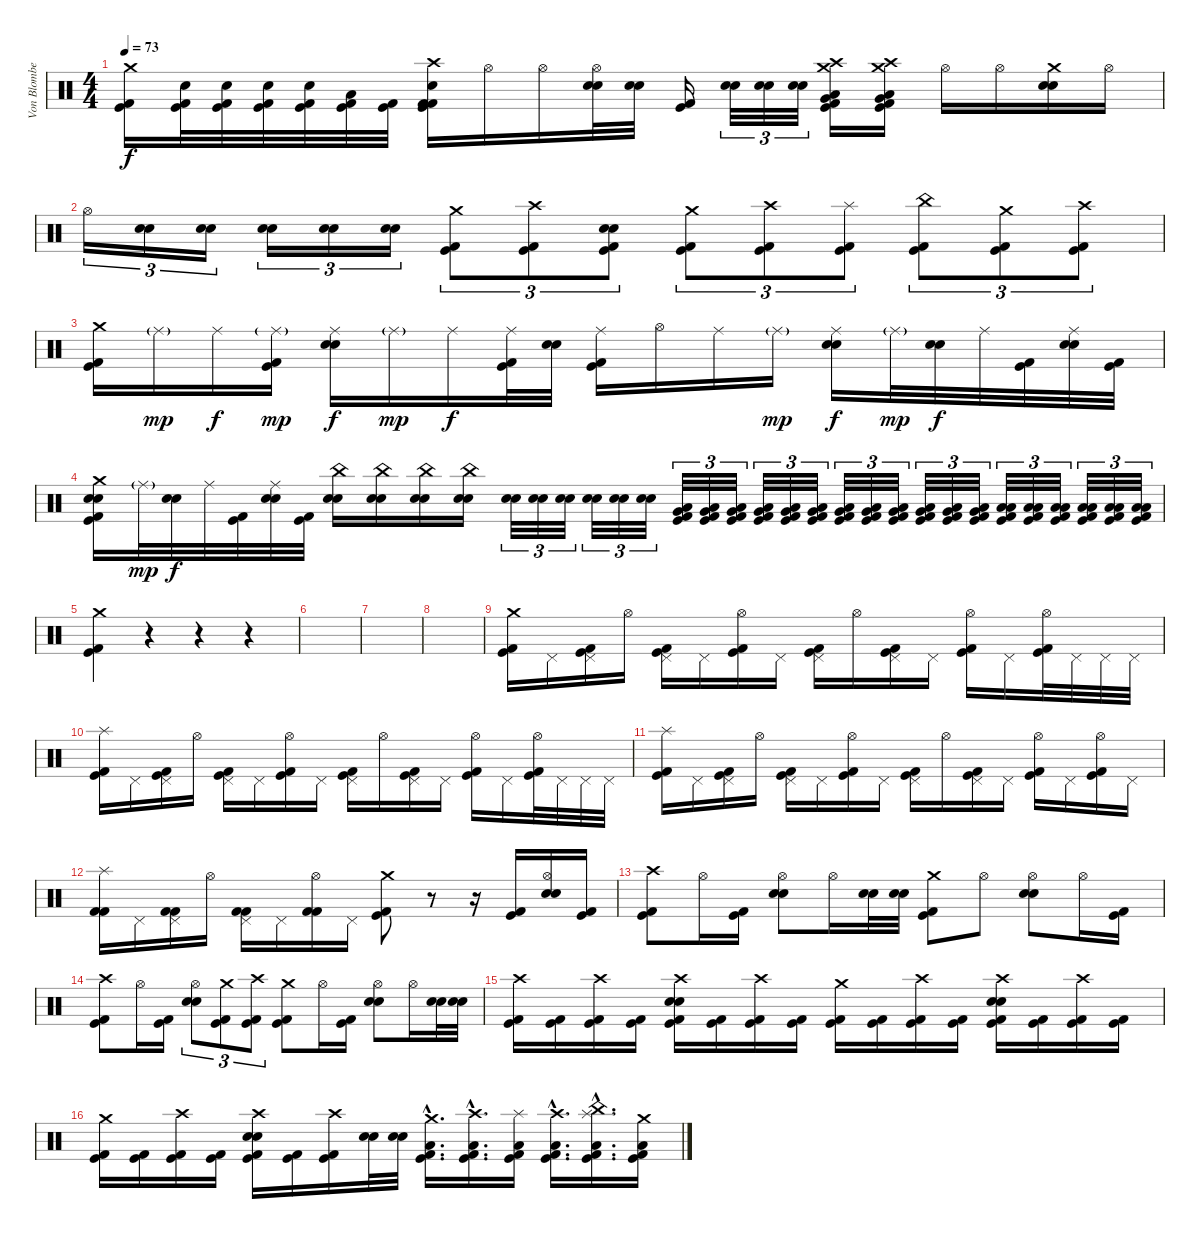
\track ("Von Blomberg" "Von Blombe") {instrument percussion}
\staff {score}
\articulation defaults
\ts (4 4)
\tempo 73
\clef neutral
\ks c
("Crash medium (hit)" "Kick (hit)" "Kick (hit) 2").16{dy f} ("Snare (hit) 2" "Kick (hit) 2" "Kick (hit)").32 ("Snare (hit) 2" "Kick (hit) 2" "Kick (hit)").32 ("Snare (hit) 2" "Kick (hit) 2" "Kick (hit)").32 ("Snare (hit) 2" "Kick (hit) 2" "Kick (hit)").32 ("Low Tom (hit)" "Kick (hit) 2" "Kick (hit)").32 ("Kick (hit)" "Kick (hit) 2").32 ("Crash high (hit)" "Kick (hit) 2" "Snare (hit) 2" "Kick (hit)" "Kick (hit) 2").16 "Hi-Hat (open)".16 "Hi-Hat (open)".16 ("Hi-Hat (open)" "Snare (hit) 2" "Electric Snare (hit)").32 ("Snare (hit) 2" "Electric Snare (hit)").32 ("Kick (hit)" "Kick (hit) 2").16 ("Electric Snare (hit)" "Snare (hit) 2").32{tu (3 2)} ("Electric Snare (hit)" "Snare (hit) 2").32{tu (3 2)} ("Electric Snare (hit)" "Snare (hit) 2").32{tu (3 2)} ("Crash medium (hit)" "Crash high (hit)" "Low Tom (hit)" "Very Low Tom (hit)" "Kick (hit)" "Kick (hit) 2").16 ("Crash medium (hit)" "Crash high (hit)" "Very Low Tom (hit)" "Low Floor Tom (hit)" "Kick (hit)" "Kick (hit) 2").16 "Hi-Hat (open)".16 "Hi-Hat (open)".16 ("Crash medium (hit)" "Electric Snare (hit)" "Snare (hit) 2").16 "Hi-Hat (open)".16 |
"Hi-Hat (open)".16{tu (3 2)} ("Snare (hit) 2" "Electric Snare (hit)").16{tu (3 2)} ("Snare (hit) 2" "Electric Snare (hit)").16{tu (3 2)} ("Snare (hit) 2" "Electric Snare (hit)").16{tu (3 2)} ("Snare (hit) 2" "Electric Snare (hit)").16{tu (3 2)} ("Snare (hit) 2" "Electric Snare (hit)").16{tu (3 2)} ("Crash medium (hit)" "Kick (hit)" "Kick (hit) 2").8{tu (3 2)} ("Crash high (hit)" "Kick (hit)" "Kick (hit) 2").8{tu (3 2)} ("Electric Snare (hit)" "Snare (hit) 2" "Kick (hit)" "Kick (hit) 2").8{tu (3 2)} ("Crash medium (hit)" "Kick (hit)" "Kick (hit) 2").8{tu (3 2)} ("Crash high (hit)" "Kick (hit)" "Kick (hit) 2").8{tu (3 2)} ("Splash (hit)" "Kick (hit)" "Kick (hit) 2").8{tu (3 2)} ("China (hit)" "Kick (hit)" "Kick (hit) 2").8{tu (3 2)} ("Crash medium (hit)" "Kick (hit)" "Kick (hit) 2").8{tu (3 2)} ("Crash high (hit)" "Kick (hit)" "Kick (hit) 2").8{tu (3 2)} |
("Crash medium (hit)" "Kick (hit)" "Kick (hit) 2").16 "Ride (middle)"{g}.16{dy mp} "Ride (middle)".16{dy f} ("Ride (middle)"{g} "Kick (hit)" "Kick (hit) 2").16{dy mp} ("Ride (middle)" "Electric Snare (hit)" "Snare (hit) 2").16{dy f} "Ride (middle)"{g}.16{dy mp} "Ride (middle)".16{dy f} ("Ride (middle)" "Kick (hit)" "Kick (hit) 2").32 ("Electric Snare (hit)" "Snare (hit) 2").32 ("Ride (middle)" "Kick (hit)" "Kick (hit) 2").16 "Hi-Hat (open)".16 "Ride (middle)".16 "Ride (middle)"{g}.16{dy mp} ("Ride (middle)" "Snare (hit) 2" "Electric Snare (hit)").16{dy f} "Ride (middle)"{g}.32{dy mp} ("Electric Snare (hit)" "Snare (hit) 2").32{dy f} "Ride (middle)".32 ("Kick (hit)" "Kick (hit) 2").32 ("Ride (middle)" "Electric Snare (hit)" "Snare (hit) 2").32 ("Kick (hit) 2" "Kick (hit)").32 |
("Crash medium (hit)" "Snare (hit) 2" "Electric Snare (hit)" "Kick (hit)" "Kick (hit) 2").16 "Ride (middle)"{g}.32{dy mp} ("Electric Snare (hit)" "Snare (hit) 2").32{dy f} "Ride (middle)".32 ("Kick (hit)" "Kick (hit) 2").32 ("Ride (middle)" "Electric Snare (hit)" "Snare (hit) 2").32 ("Kick (hit)" "Kick (hit) 2").32 ("China (hit)" "Snare (hit) 2" "Electric Snare (hit)").16 ("China (hit)" "Snare (hit) 2" "Electric Snare (hit)").16 ("China (hit)" "Snare (hit) 2" "Electric Snare (hit)").16 ("China (hit)" "Snare (hit) 2" "Electric Snare (hit)").16 ("Electric Snare (hit)" "Snare (hit) 2").32{tu (3 2)} ("Electric Snare (hit)" "Snare (hit) 2").32{tu (3 2)} ("Electric Snare (hit)" "Snare (hit) 2").32{tu (3 2)} ("Electric Snare (hit)" "Snare (hit) 2").32{tu (3 2)} ("Electric Snare (hit)" "Snare (hit) 2").32{tu (3 2)} ("Electric Snare (hit)" "Snare (hit) 2").32{tu (3 2)} ("Low Tom (hit)" "Very Low Tom (hit)" "Kick (hit)" "Kick (hit) 2").32{tu (3 2)} ("Low Tom (hit)" "Very Low Tom (hit)" "Kick (hit)" "Kick (hit) 2").32{tu (3 2)} ("Low Tom (hit)" "Very Low Tom (hit)" "Kick (hit)" "Kick (hit) 2").32{tu (3 2)} ("Low Tom (hit)" "Very Low Tom (hit)" "Kick (hit)" "Kick (hit) 2").32{tu (3 2)} ("Low Tom (hit)" "Very Low Tom (hit)" "Kick (hit)" "Kick (hit) 2").32{tu (3 2)} ("Low Tom (hit)" "Very Low Tom (hit)" "Kick (hit)" "Kick (hit) 2").32{tu (3 2)} ("Very Low Tom (hit)" "Low Floor Tom (hit)" "Kick (hit)" "Kick (hit) 2").32{tu (3 2)} ("Very Low Tom (hit)" "Low Floor Tom (hit)" "Kick (hit)" "Kick (hit) 2").32{tu (3 2)} ("Very Low Tom (hit)" "Low Floor Tom (hit)" "Kick (hit)" "Kick (hit) 2").32{tu (3 2)} ("Very Low Tom (hit)" "Low Floor Tom (hit)" "Kick (hit)" "Kick (hit) 2").32{tu (3 2)} ("Very Low Tom (hit)" "Low Floor Tom (hit)" "Kick (hit)" "Kick (hit) 2").32{tu (3 2)} ("Very Low Tom (hit)" "Low Floor Tom (hit)" "Kick (hit)" "Kick (hit) 2").32{tu (3 2)} ("Low Floor Tom (hit)" "Low Floor Tom (hit)" "Kick (hit)" "Kick (hit) 2").32{tu (3 2)} ("Low Floor Tom (hit)" "Low Floor Tom (hit)" "Kick (hit)" "Kick (hit) 2").32{tu (3 2)} ("Low Floor Tom (hit)" "Low Floor Tom (hit)" "Kick (hit)" "Kick (hit) 2").32{tu (3 2)} ("Low Floor Tom (hit)" "Low Floor Tom (hit)" "Kick (hit)" "Kick (hit) 2").32{tu (3 2)} ("Low Floor Tom (hit)" "Low Floor Tom (hit)" "Kick (hit)" "Kick (hit) 2").32{tu (3 2)} ("Low Floor Tom (hit)" "Low Floor Tom (hit)" "Kick (hit)" "Kick (hit) 2").32{tu (3 2)} |
("Crash medium (hit)" "Kick (hit)" "Kick (hit) 2").4 r.4 r.4 r.4 |
|
|
|
("Crash medium (hit)" "Kick (hit)" "Kick (hit) 2").16 "Pedal Hi-Hat (hit)".16 ("Pedal Hi-Hat (hit)" "Kick (hit)" "Kick (hit) 2").16 "Hi-Hat (open)".16 ("Pedal Hi-Hat (hit)" "Kick (hit)" "Kick (hit) 2").16 "Pedal Hi-Hat (hit)".16 ("Hi-Hat (open)" "Kick (hit)" "Kick (hit) 2").16 "Pedal Hi-Hat (hit)".16 ("Pedal Hi-Hat (hit)" "Kick (hit)" "Kick (hit) 2").16 "Hi-Hat (open)".16 ("Pedal Hi-Hat (hit)" "Kick (hit)" "Kick (hit) 2").16 "Pedal Hi-Hat (hit)".16 ("Hi-Hat (open)" "Kick (hit)" "Kick (hit) 2").16 "Pedal Hi-Hat (hit)".16 ("Hi-Hat (open)" "Kick (hit)" "Kick (hit) 2").32 "Pedal Hi-Hat (hit)".32 "Pedal Hi-Hat (hit)".32 "Pedal Hi-Hat (hit)".32 |
("Splash (hit)" "Kick (hit)" "Kick (hit) 2").16 "Pedal Hi-Hat (hit)".16 ("Pedal Hi-Hat (hit)" "Kick (hit)" "Kick (hit) 2").16 "Hi-Hat (open)".16 ("Pedal Hi-Hat (hit)" "Kick (hit)" "Kick (hit) 2").16 "Pedal Hi-Hat (hit)".16 ("Hi-Hat (open)" "Kick (hit)" "Kick (hit) 2").16 "Pedal Hi-Hat (hit)".16 ("Pedal Hi-Hat (hit)" "Kick (hit)" "Kick (hit) 2").16 "Hi-Hat (open)".16 ("Pedal Hi-Hat (hit)" "Kick (hit)" "Kick (hit) 2").16 "Pedal Hi-Hat (hit)".16 ("Hi-Hat (open)" "Kick (hit)" "Kick (hit) 2").16 "Pedal Hi-Hat (hit)".16 ("Hi-Hat (open)" "Kick (hit)" "Kick (hit) 2").32 "Pedal Hi-Hat (hit)".32 "Pedal Hi-Hat (hit)".32 "Pedal Hi-Hat (hit)".32 |
("Splash (hit)" "Kick (hit)" "Kick (hit) 2").16 "Pedal Hi-Hat (hit)".16 ("Pedal Hi-Hat (hit)" "Kick (hit)" "Kick (hit) 2").16 "Hi-Hat (open)".16 ("Pedal Hi-Hat (hit)" "Kick (hit)" "Kick (hit) 2").16 "Pedal Hi-Hat (hit)".16 ("Hi-Hat (open)" "Kick (hit)" "Kick (hit) 2").16 "Pedal Hi-Hat (hit)".16 ("Pedal Hi-Hat (hit)" "Kick (hit)" "Kick (hit) 2").16 "Hi-Hat (open)".16 ("Pedal Hi-Hat (hit)" "Kick (hit)" "Kick (hit) 2").16 "Pedal Hi-Hat (hit)".16 ("Hi-Hat (open)" "Kick (hit)" "Kick (hit) 2").16 "Pedal Hi-Hat (hit)".16 ("Hi-Hat (open)" "Kick (hit)" "Kick (hit) 2").16 "Pedal Hi-Hat (hit)".16 |
("Splash (hit)" "Kick (hit) 2" "Kick (hit) 2").16 "Pedal Hi-Hat (hit)".16 ("Pedal Hi-Hat (hit)" "Kick (hit) 2" "Kick (hit) 2").16 "Hi-Hat (open)".16 ("Pedal Hi-Hat (hit)" "Kick (hit) 2" "Kick (hit) 2").16 "Pedal Hi-Hat (hit)".16 ("Hi-Hat (open)" "Kick (hit) 2" "Kick (hit) 2").16 "Pedal Hi-Hat (hit)".16 ("Crash medium (hit)" "Kick (hit)" "Kick (hit) 2").8 r.8 r.16 ("Kick (hit)" "Kick (hit) 2").16 ("Hi-Hat (open)" "Snare (hit) 2" "Electric Snare (hit)").16 ("Kick (hit)" "Kick (hit) 2").16 |
("Crash high (hit)" "Kick (hit)" "Kick (hit) 2").8 "Hi-Hat (open)".16 ("Kick (hit)" "Kick (hit) 2").16 ("Hi-Hat (open)" "Snare (hit) 2" "Electric Snare (hit)").8 "Hi-Hat (open)".16 ("Electric Snare (hit)" "Snare (hit) 2").32 ("Electric Snare (hit)" "Snare (hit) 2").32 ("Crash medium (hit)" "Kick (hit)" "Kick (hit) 2").8 "Hi-Hat (open)".8 ("Hi-Hat (open)" "Snare (hit) 2" "Electric Snare (hit)").8 "Hi-Hat (open)".16 ("Kick (hit)" "Kick (hit) 2").16 |
("Crash high (hit)" "Kick (hit)" "Kick (hit) 2").8 "Hi-Hat (open)".16 ("Kick (hit)" "Kick (hit) 2").16 ("Hi-Hat (open)" "Electric Snare (hit)" "Snare (hit) 2").8{tu (3 2)} ("Crash medium (hit)" "Kick (hit)" "Kick (hit) 2").8{tu (3 2)} ("Crash high (hit)" "Kick (hit)" "Kick (hit) 2").8{tu (3 2)} ("Crash medium (hit)" "Kick (hit)" "Kick (hit) 2").8 "Hi-Hat (open)".16 ("Kick (hit)" "Kick (hit) 2").16 ("Hi-Hat (open)" "Electric Snare (hit)" "Snare (hit) 2").8 "Hi-Hat (open)".16 ("Electric Snare (hit)" "Snare (hit) 2").32 ("Electric Snare (hit)" "Snare (hit) 2").32 |
("Crash high (hit)" "Kick (hit)" "Kick (hit) 2").16 ("Kick (hit)" "Kick (hit) 2").16 ("Crash high (hit)" "Kick (hit)" "Kick (hit) 2").16 ("Kick (hit)" "Kick (hit) 2").16 ("Crash high (hit)" "Electric Snare (hit)" "Snare (hit) 2" "Kick (hit)" "Kick (hit) 2").16 ("Kick (hit)" "Kick (hit) 2").16 ("Crash high (hit)" "Kick (hit)" "Kick (hit) 2").16 ("Kick (hit)" "Kick (hit) 2").16 ("Crash medium (hit)" "Kick (hit)" "Kick (hit) 2").16 ("Kick (hit)" "Kick (hit) 2").16 ("Crash high (hit)" "Kick (hit)" "Kick (hit) 2").16 ("Kick (hit)" "Kick (hit) 2").16 ("Crash high (hit)" "Electric Snare (hit)" "Snare (hit) 2" "Kick (hit)" "Kick (hit) 2").16 ("Kick (hit)" "Kick (hit) 2").16 ("Crash high (hit)" "Kick (hit)" "Kick (hit) 2").16 ("Kick (hit)" "Kick (hit) 2").16 |
("Crash medium (hit)" "Kick (hit)" "Kick (hit) 2").16 ("Kick (hit)" "Kick (hit) 2").16 ("Crash high (hit)" "Kick (hit)" "Kick (hit) 2").16 ("Kick (hit)" "Kick (hit) 2").16 ("Crash high (hit)" "Electric Snare (hit)" "Snare (hit) 2" "Kick (hit)" "Kick (hit) 2").16 ("Kick (hit)" "Kick (hit) 2").16 ("Crash high (hit)" "Kick (hit)" "Kick (hit) 2").16 ("Electric Snare (hit)" "Snare (hit) 2").32 ("Electric Snare (hit)" "Snare (hit) 2").32 ("Crash medium (hit)"{hac} "Low Floor Tom (hit)"{hac} "Kick (hit)"{hac} "Kick (hit) 2"{hac}).16{d} ("Crash high (hit)"{hac} "Low Floor Tom (hit)"{hac} "Kick (hit)"{hac} "Kick (hit) 2"{hac}).16{d} ("Splash (hit)" "Low Floor Tom (hit)" "Kick (hit)" "Kick (hit) 2").16 ("Crash high (hit)"{hac} "Low Floor Tom (hit)"{hac} "Kick (hit)"{hac} "Kick (hit) 2"{hac}).16{d} ("China (hit)"{hac} "Splash (hit)"{hac} "Low Floor Tom (hit)"{hac} "Kick (hit)"{hac} "Kick (hit) 2"{hac}).16{d} ("Crash medium (hit)" "Low Floor Tom (hit)" "Kick (hit)" "Kick (hit) 2").16
